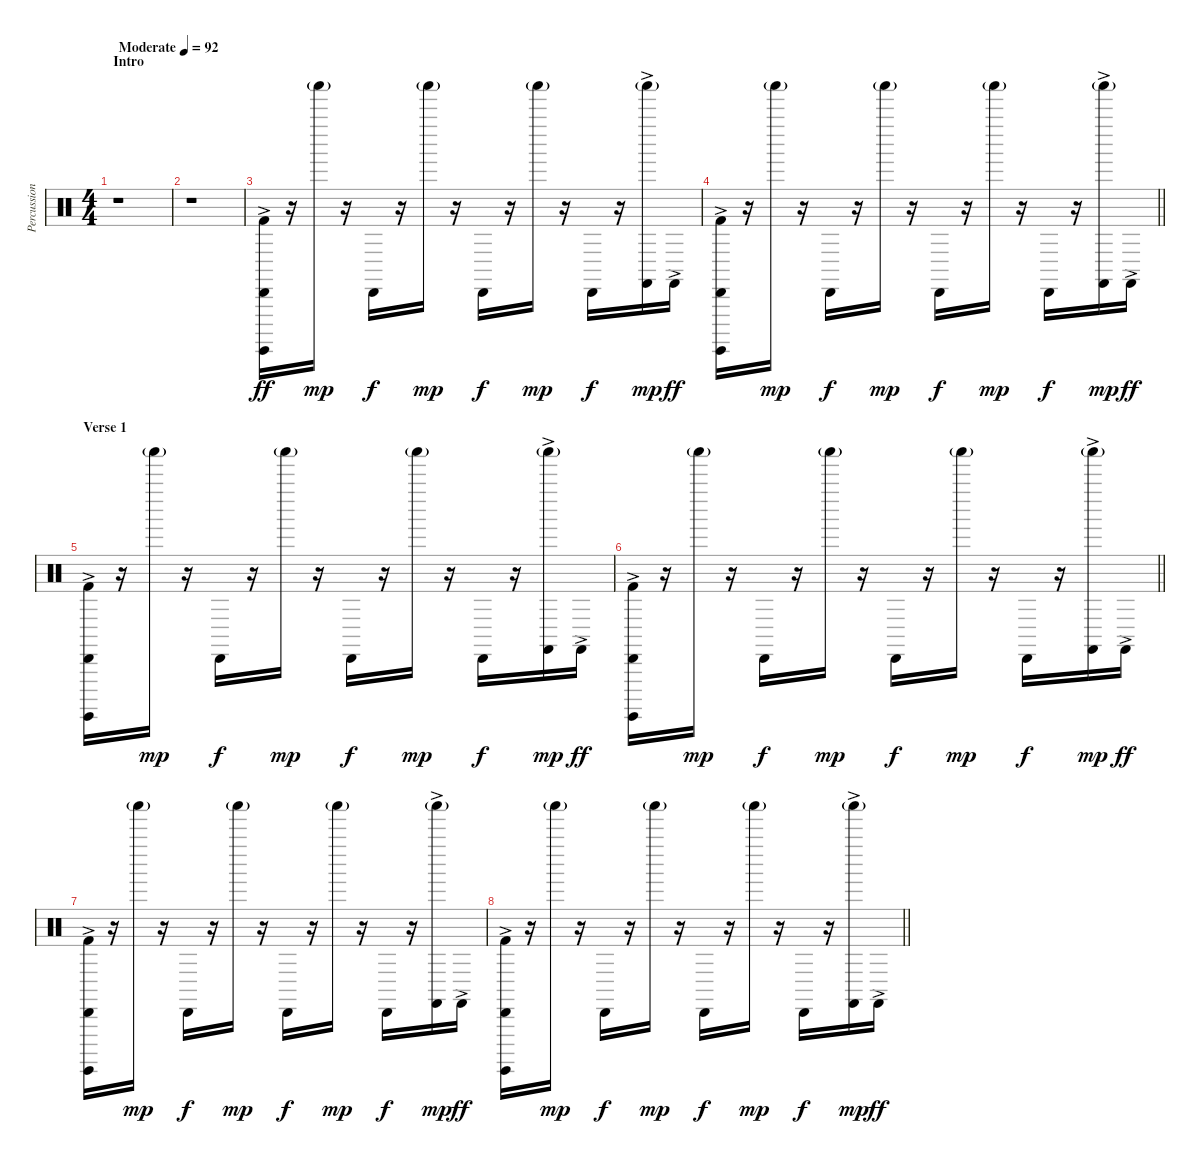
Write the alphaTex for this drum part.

\track ("Percussion" "Percussion") {instrument percussion}
\staff {score}
\articulation defaults
\ts (4 4)
\section ("" "Intro")
\tempo (92 "Moderate")
\clef neutral
\ks c
r.1{dy ff} |
r.1 |
("Kick (hit) 2" "Surdo (hit)"{ac} "Cabasa (hit)").16 r.16 "Shaker (hit)"{g}.16{dy mp} r.16 "Cabasa (hit)".16{dy f} r.16 "Shaker (hit)"{g}.16{dy mp} r.16 "Cabasa (hit)".16{dy f} r.16 "Shaker (hit)"{g}.16{dy mp} r.16 "Cabasa (hit)".16{dy f} r.16 ("Castanets (hit)"{ac} "Shaker (hit)"{g}).16{dy mp} "Castanets (hit)"{ac}.16{dy ff} |
\barLineRight lightlight
("Kick (hit) 2" "Surdo (hit)"{ac} "Cabasa (hit)").16 r.16 "Shaker (hit)"{g}.16{dy mp} r.16 "Cabasa (hit)".16{dy f} r.16 "Shaker (hit)"{g}.16{dy mp} r.16 "Cabasa (hit)".16{dy f} r.16 "Shaker (hit)"{g}.16{dy mp} r.16 "Cabasa (hit)".16{dy f} r.16 ("Castanets (hit)"{ac} "Shaker (hit)"{g}).16{dy mp} "Castanets (hit)"{ac}.16{dy ff} |
\section ("" "Verse 1")
("Kick (hit) 2" "Surdo (hit)"{ac} "Cabasa (hit)").16 r.16 "Shaker (hit)"{g}.16{dy mp} r.16 "Cabasa (hit)".16{dy f} r.16 "Shaker (hit)"{g}.16{dy mp} r.16 "Cabasa (hit)".16{dy f} r.16 "Shaker (hit)"{g}.16{dy mp} r.16 "Cabasa (hit)".16{dy f} r.16 ("Castanets (hit)"{ac} "Shaker (hit)"{g}).16{dy mp} "Castanets (hit)"{ac}.16{dy ff} |
\barLineRight lightlight
("Kick (hit) 2" "Surdo (hit)"{ac} "Cabasa (hit)").16 r.16 "Shaker (hit)"{g}.16{dy mp} r.16 "Cabasa (hit)".16{dy f} r.16 "Shaker (hit)"{g}.16{dy mp} r.16 "Cabasa (hit)".16{dy f} r.16 "Shaker (hit)"{g}.16{dy mp} r.16 "Cabasa (hit)".16{dy f} r.16 ("Castanets (hit)"{ac} "Shaker (hit)"{g}).16{dy mp} "Castanets (hit)"{ac}.16{dy ff} |
("Kick (hit) 2" "Surdo (hit)"{ac} "Cabasa (hit)").16 r.16 "Shaker (hit)"{g}.16{dy mp} r.16 "Cabasa (hit)".16{dy f} r.16 "Shaker (hit)"{g}.16{dy mp} r.16 "Cabasa (hit)".16{dy f} r.16 "Shaker (hit)"{g}.16{dy mp} r.16 "Cabasa (hit)".16{dy f} r.16 ("Castanets (hit)"{ac} "Shaker (hit)"{g}).16{dy mp} "Castanets (hit)"{ac}.16{dy ff} |
\barLineRight lightlight
("Kick (hit) 2" "Surdo (hit)"{ac} "Cabasa (hit)").16 r.16 "Shaker (hit)"{g}.16{dy mp} r.16 "Cabasa (hit)".16{dy f} r.16 "Shaker (hit)"{g}.16{dy mp} r.16 "Cabasa (hit)".16{dy f} r.16 "Shaker (hit)"{g}.16{dy mp} r.16 "Cabasa (hit)".16{dy f} r.16 ("Castanets (hit)"{ac} "Shaker (hit)"{g}).16{dy mp} "Castanets (hit)"{ac}.16{dy ff}
